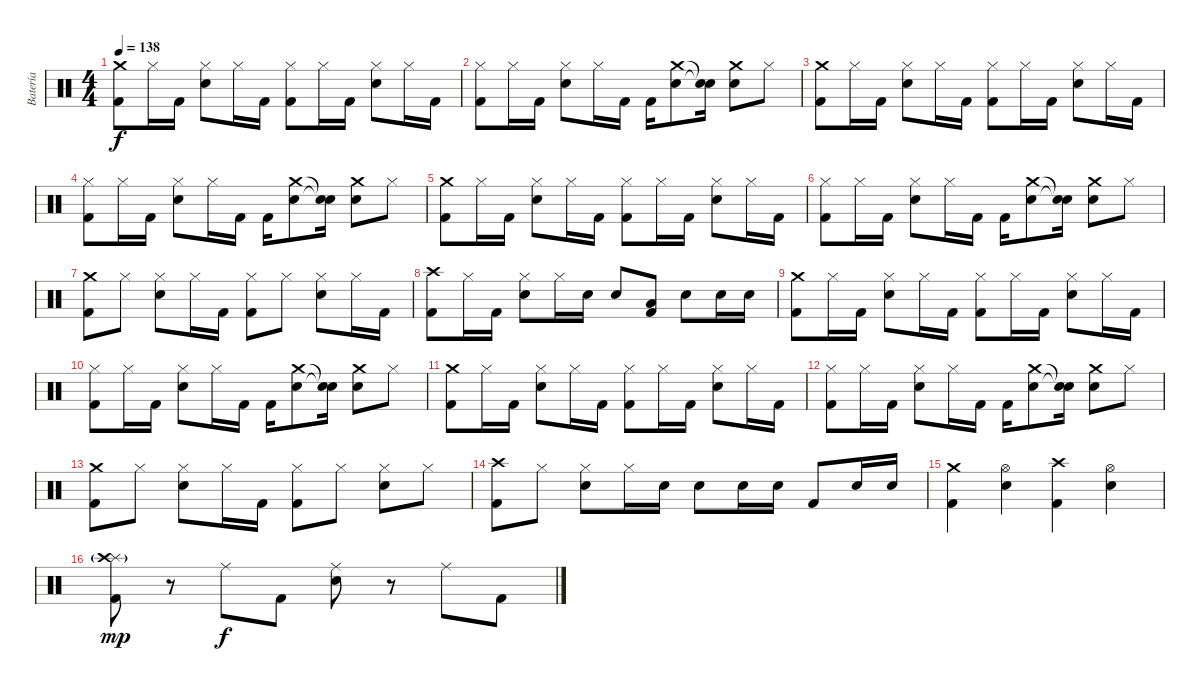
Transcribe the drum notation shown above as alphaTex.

\track ("Batería" "Batería") {instrument percussion}
\staff {score}
\articulation defaults
\ts (4 4)
\tempo 138
\clef neutral
\ks c
("Crash medium (hit)" "Kick (hit) 2").8{dy f} "Hi-Hat (closed)".16 "Kick (hit) 2".16 ("Hi-Hat (closed)" "Snare (hit) 2").8 "Hi-Hat (closed)".16 "Kick (hit) 2".16 ("Hi-Hat (closed)" "Kick (hit) 2").8 "Hi-Hat (closed)".16 "Kick (hit) 2".16 ("Hi-Hat (closed)" "Snare (hit) 2").8 "Hi-Hat (closed)".16 "Kick (hit) 2".16 |
("Hi-Hat (closed)" "Kick (hit) 2").8 "Hi-Hat (closed)".16 "Kick (hit) 2".16 ("Hi-Hat (closed)" "Snare (hit) 2").8 "Hi-Hat (closed)".16 "Kick (hit) 2".16 "Kick (hit) 2".16 ("Crash medium (hit)" "Snare (hit) 2").8 ("Snare (hit)"{t} "Snare (hit)"{t}).16 ("Crash medium (hit)" "Snare (hit) 2").8 "Hi-Hat (closed)".8 |
("Crash medium (hit)" "Kick (hit) 2").8 "Hi-Hat (closed)".16 "Kick (hit) 2".16 ("Hi-Hat (closed)" "Snare (hit) 2").8 "Hi-Hat (closed)".16 "Kick (hit) 2".16 ("Hi-Hat (closed)" "Kick (hit) 2").8 "Hi-Hat (closed)".16 "Kick (hit) 2".16 ("Hi-Hat (closed)" "Snare (hit) 2").8 "Hi-Hat (closed)".16 "Kick (hit) 2".16 |
("Hi-Hat (closed)" "Kick (hit) 2").8 "Hi-Hat (closed)".16 "Kick (hit) 2".16 ("Hi-Hat (closed)" "Snare (hit) 2").8 "Hi-Hat (closed)".16 "Kick (hit) 2".16 "Kick (hit) 2".16 ("Crash medium (hit)" "Snare (hit) 2").8 ("Snare (hit)"{t} "Snare (hit)"{t}).16 ("Crash medium (hit)" "Snare (hit) 2").8 "Hi-Hat (closed)".8 |
("Crash medium (hit)" "Kick (hit) 2").8 "Hi-Hat (closed)".16 "Kick (hit) 2".16 ("Hi-Hat (closed)" "Snare (hit) 2").8 "Hi-Hat (closed)".16 "Kick (hit) 2".16 ("Hi-Hat (closed)" "Kick (hit) 2").8 "Hi-Hat (closed)".16 "Kick (hit) 2".16 ("Hi-Hat (closed)" "Snare (hit) 2").8 "Hi-Hat (closed)".16 "Kick (hit) 2".16 |
("Hi-Hat (closed)" "Kick (hit) 2").8 "Hi-Hat (closed)".16 "Kick (hit) 2".16 ("Hi-Hat (closed)" "Snare (hit) 2").8 "Hi-Hat (closed)".16 "Kick (hit) 2".16 "Kick (hit) 2".16 ("Crash medium (hit)" "Snare (hit) 2").8 ("Snare (hit)"{t} "Snare (hit)"{t}).16 ("Crash medium (hit)" "Snare (hit) 2").8 "Hi-Hat (closed)".8 |
("Crash medium (hit)" "Kick (hit) 2").8 "Hi-Hat (closed)".8 ("Hi-Hat (closed)" "Snare (hit) 2").8 "Hi-Hat (closed)".16 "Kick (hit) 2".16 ("Hi-Hat (closed)" "Kick (hit) 2").8 "Hi-Hat (closed)".8 ("Hi-Hat (closed)" "Snare (hit) 2").8 "Hi-Hat (closed)".16 "Kick (hit) 2".16 |
("Crash high (hit)" "Kick (hit) 2").8 "Hi-Hat (closed)".16 "Kick (hit) 2".16 ("Hi-Hat (closed)" "Snare (hit) 2").8 "Hi-Hat (closed)".16 "Snare (hit) 2".16 "Snare (hit) 2".8 ("Low Floor Tom (hit)" "Kick (hit) 2").8 "Snare (hit) 2".8 "Snare (hit) 2".16 "Snare (hit) 2".16 |
("Crash medium (hit)" "Kick (hit) 2").8 "Hi-Hat (closed)".16 "Kick (hit) 2".16 ("Hi-Hat (closed)" "Snare (hit) 2").8 "Hi-Hat (closed)".16 "Kick (hit) 2".16 ("Hi-Hat (closed)" "Kick (hit) 2").8 "Hi-Hat (closed)".16 "Kick (hit) 2".16 ("Hi-Hat (closed)" "Snare (hit) 2").8 "Hi-Hat (closed)".16 "Kick (hit) 2".16 |
("Hi-Hat (closed)" "Kick (hit) 2").8 "Hi-Hat (closed)".16 "Kick (hit) 2".16 ("Hi-Hat (closed)" "Snare (hit) 2").8 "Hi-Hat (closed)".16 "Kick (hit) 2".16 "Kick (hit) 2".16 ("Crash medium (hit)" "Snare (hit) 2").8 ("Snare (hit)"{t} "Snare (hit)"{t}).16 ("Crash medium (hit)" "Snare (hit) 2").8 "Hi-Hat (closed)".8 |
("Crash medium (hit)" "Kick (hit) 2").8 "Hi-Hat (closed)".16 "Kick (hit) 2".16 ("Hi-Hat (closed)" "Snare (hit) 2").8 "Hi-Hat (closed)".16 "Kick (hit) 2".16 ("Hi-Hat (closed)" "Kick (hit) 2").8 "Hi-Hat (closed)".16 "Kick (hit) 2".16 ("Hi-Hat (closed)" "Snare (hit) 2").8 "Hi-Hat (closed)".16 "Kick (hit) 2".16 |
("Hi-Hat (closed)" "Kick (hit) 2").8 "Hi-Hat (closed)".16 "Kick (hit) 2".16 ("Hi-Hat (closed)" "Snare (hit) 2").8 "Hi-Hat (closed)".16 "Kick (hit) 2".16 "Kick (hit) 2".16 ("Crash medium (hit)" "Snare (hit) 2").8 ("Snare (hit)"{t} "Snare (hit)"{t}).16 ("Crash medium (hit)" "Snare (hit) 2").8 "Hi-Hat (closed)".8 |
("Crash medium (hit)" "Kick (hit) 2").8 "Hi-Hat (closed)".8 ("Hi-Hat (closed)" "Snare (hit) 2").8 "Hi-Hat (closed)".16 "Kick (hit) 2".16 ("Hi-Hat (closed)" "Kick (hit) 2").8 "Hi-Hat (closed)".8 ("Hi-Hat (closed)" "Snare (hit) 2").8 "Hi-Hat (closed)".8 |
("Crash high (hit)" "Kick (hit) 2").8 "Hi-Hat (closed)".8 ("Hi-Hat (closed)" "Snare (hit) 2").8 "Hi-Hat (closed)".16 "Snare (hit) 2".16 "Snare (hit) 2".8 "Snare (hit) 2".16 "Snare (hit) 2".16 "Kick (hit) 2".8 "Snare (hit) 2".16 "Snare (hit) 2".16 |
("Crash medium (hit)" "Kick (hit) 2").4 ("Hi-Hat (open)" "Snare (hit) 2").4 ("Crash high (hit)" "Kick (hit) 2").4 ("Hi-Hat (open)" "Snare (hit) 2").4 |
("Splash (hit)" "Crash high (hit)"{g} "Kick (hit) 2").8{dy mp} r.8 "Ride (middle)".8{dy f} "Kick (hit) 2".8 ("Ride (middle)" "Snare (hit) 2").8 r.8 "Ride (middle)".8 "Kick (hit) 2".8
